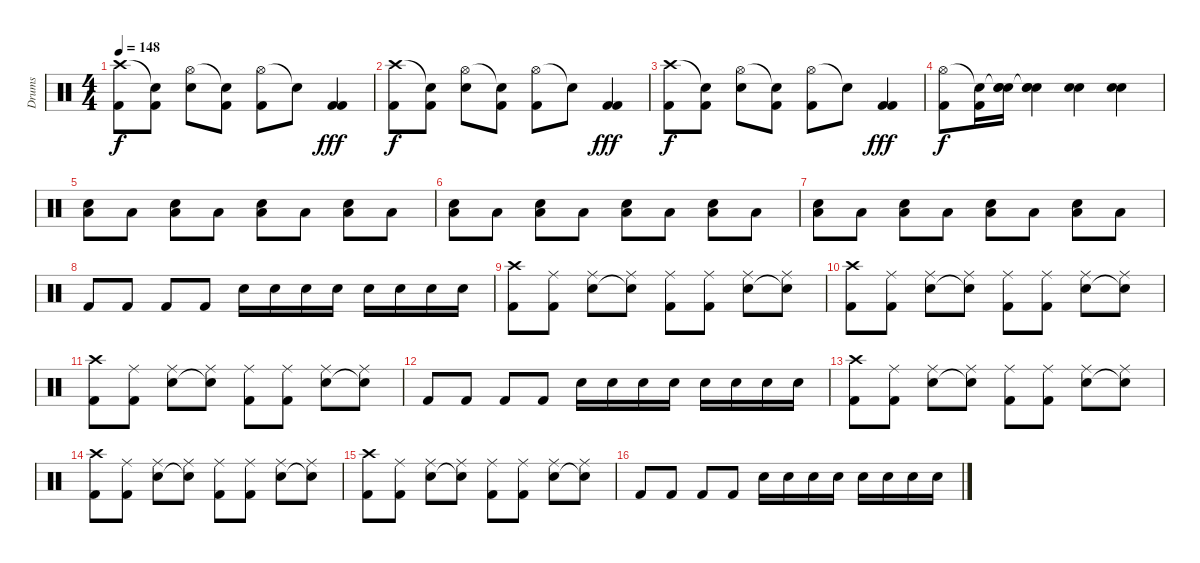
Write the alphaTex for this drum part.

\track ("Drums" "Drums") {instrument percussion}
\staff {score}
\articulation defaults
\ts (4 4)
\tempo 148
\clef neutral
\ks c
("Crash high (hit)" "Kick (hit) 2").8{dy f} ("Snare (hit)"{t} "Kick (hit) 2").8 ("Hi-Hat (open)" "Snare (hit) 2").8 ("Snare (hit)"{t} "Kick (hit) 2").8 ("Hi-Hat (open)" "Kick (hit) 2").8 "Snare (hit)"{t}.8 ("Kick (hit) 2" "Kick (hit) 2").4{dy fff} |
("Crash high (hit)" "Kick (hit) 2").8{dy f} ("Snare (hit)"{t} "Kick (hit) 2").8 ("Hi-Hat (open)" "Snare (hit) 2").8 ("Snare (hit)"{t} "Kick (hit) 2").8 ("Hi-Hat (open)" "Kick (hit) 2").8 "Snare (hit)"{t}.8 ("Kick (hit) 2" "Kick (hit) 2").4{dy fff} |
("Crash high (hit)" "Kick (hit) 2").8{dy f} ("Snare (hit)"{t} "Kick (hit) 2").8 ("Hi-Hat (open)" "Snare (hit) 2").8 ("Snare (hit)"{t} "Kick (hit) 2").8 ("Hi-Hat (open)" "Kick (hit) 2").8 "Snare (hit)"{t}.8 ("Kick (hit) 2" "Kick (hit) 2").4{dy fff} |
("Hi-Hat (open)" "Kick (hit) 2").8{dy f} ("Snare (hit)"{t} "Kick (hit) 2").16 ("Snare (hit)"{t} "Snare (hit) 2" "Snare (hit)").16 ("Snare (hit)"{t} "Snare (hit) 2" "Snare (hit) 2").4 ("Snare (hit) 2" "Snare (hit) 2").4 ("Snare (hit) 2" "Snare (hit) 2").4 |
("Snare (hit) 2" "Low Floor Tom (hit)").8 "Low Floor Tom (hit)".8 ("Snare (hit) 2" "Low Floor Tom (hit)").8 "Low Floor Tom (hit)".8 ("Snare (hit) 2" "Low Floor Tom (hit)").8 "Low Floor Tom (hit)".8 ("Snare (hit) 2" "Low Floor Tom (hit)").8 "Low Floor Tom (hit)".8 |
("Snare (hit) 2" "Low Floor Tom (hit)").8 "Low Floor Tom (hit)".8 ("Snare (hit) 2" "Low Floor Tom (hit)").8 "Low Floor Tom (hit)".8 ("Snare (hit) 2" "Low Floor Tom (hit)").8 "Low Floor Tom (hit)".8 ("Snare (hit) 2" "Low Floor Tom (hit)").8 "Low Floor Tom (hit)".8 |
("Snare (hit) 2" "Low Floor Tom (hit)").8 "Low Floor Tom (hit)".8 ("Snare (hit) 2" "Low Floor Tom (hit)").8 "Low Floor Tom (hit)".8 ("Snare (hit) 2" "Low Floor Tom (hit)").8 "Low Floor Tom (hit)".8 ("Snare (hit) 2" "Low Floor Tom (hit)").8 "Low Floor Tom (hit)".8 |
"Kick (hit) 2".8 "Kick (hit) 2".8 "Kick (hit) 2".8 "Kick (hit) 2".8 "Snare (hit) 2".16 "Snare (hit) 2".16 "Snare (hit) 2".16 "Snare (hit) 2".16 "Snare (hit) 2".16 "Snare (hit) 2".16 "Snare (hit) 2".16 "Snare (hit) 2".16 |
("Crash high (hit)" "Kick (hit) 2").8 ("Ride (middle)" "Kick (hit) 2").8 ("Ride (middle)" "Snare (hit) 2").8 ("Ride (middle)" "Snare (hit)"{t}).8 ("Ride (middle)" "Kick (hit) 2").8 ("Ride (middle)" "Kick (hit) 2").8 ("Ride (middle)" "Snare (hit) 2").8 ("Ride (middle)" "Snare (hit)"{t}).8 |
("Crash high (hit)" "Kick (hit) 2").8 ("Ride (middle)" "Kick (hit) 2").8 ("Ride (middle)" "Snare (hit) 2").8 ("Ride (middle)" "Snare (hit)"{t}).8 ("Ride (middle)" "Kick (hit) 2").8 ("Ride (middle)" "Kick (hit) 2").8 ("Ride (middle)" "Snare (hit) 2").8 ("Ride (middle)" "Snare (hit)"{t}).8 |
("Crash high (hit)" "Kick (hit) 2").8 ("Ride (middle)" "Kick (hit) 2").8 ("Ride (middle)" "Snare (hit) 2").8 ("Ride (middle)" "Snare (hit)"{t}).8 ("Ride (middle)" "Kick (hit) 2").8 ("Ride (middle)" "Kick (hit) 2").8 ("Ride (middle)" "Snare (hit) 2").8 ("Ride (middle)" "Snare (hit)"{t}).8 |
"Kick (hit) 2".8 "Kick (hit) 2".8 "Kick (hit) 2".8 "Kick (hit) 2".8 "Snare (hit) 2".16 "Snare (hit) 2".16 "Snare (hit) 2".16 "Snare (hit) 2".16 "Snare (hit) 2".16 "Snare (hit) 2".16 "Snare (hit) 2".16 "Snare (hit) 2".16 |
("Crash high (hit)" "Kick (hit) 2").8 ("Ride (middle)" "Kick (hit) 2").8 ("Ride (middle)" "Snare (hit) 2").8 ("Ride (middle)" "Snare (hit)"{t}).8 ("Ride (middle)" "Kick (hit) 2").8 ("Ride (middle)" "Kick (hit) 2").8 ("Ride (middle)" "Snare (hit) 2").8 ("Ride (middle)" "Snare (hit)"{t}).8 |
("Crash high (hit)" "Kick (hit) 2").8 ("Ride (middle)" "Kick (hit) 2").8 ("Ride (middle)" "Snare (hit) 2").8 ("Ride (middle)" "Snare (hit)"{t}).8 ("Ride (middle)" "Kick (hit) 2").8 ("Ride (middle)" "Kick (hit) 2").8 ("Ride (middle)" "Snare (hit) 2").8 ("Ride (middle)" "Snare (hit)"{t}).8 |
("Crash high (hit)" "Kick (hit) 2").8 ("Ride (middle)" "Kick (hit) 2").8 ("Ride (middle)" "Snare (hit) 2").8 ("Ride (middle)" "Snare (hit)"{t}).8 ("Ride (middle)" "Kick (hit) 2").8 ("Ride (middle)" "Kick (hit) 2").8 ("Ride (middle)" "Snare (hit) 2").8 ("Ride (middle)" "Snare (hit)"{t}).8 |
"Kick (hit) 2".8 "Kick (hit) 2".8 "Kick (hit) 2".8 "Kick (hit) 2".8 "Snare (hit) 2".16 "Snare (hit) 2".16 "Snare (hit) 2".16 "Snare (hit) 2".16 "Snare (hit) 2".16 "Snare (hit) 2".16 "Snare (hit) 2".16 "Snare (hit) 2".16
